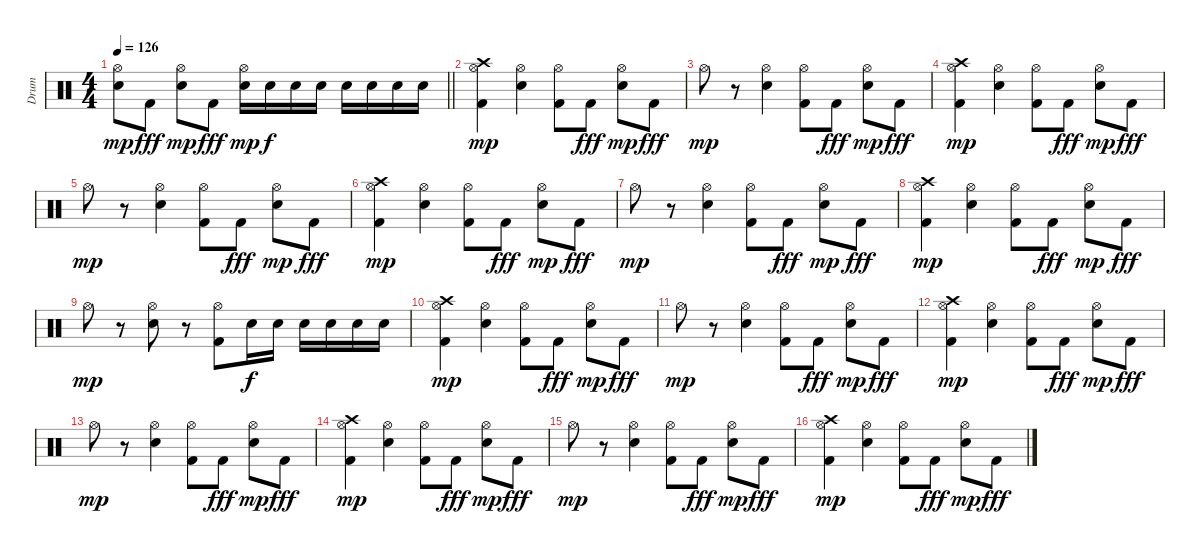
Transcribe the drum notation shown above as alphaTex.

\track ("Drum" "Drum") {instrument percussion}
\staff {score}
\articulation defaults
\ts (4 4)
\tempo 126
\clef neutral
\barLineRight lightlight
\ks c
("Electric Snare (hit)" "Hi-Hat (open)").8{dy mp} "Kick (hit) 2".8{dy fff} ("Electric Snare (hit)" "Hi-Hat (open)").8{dy mp} "Kick (hit) 2".8{dy fff} ("Electric Snare (hit)" "Hi-Hat (open)").16{dy mp} "Electric Snare (hit)".16{dy f} "Electric Snare (hit)".16 "Electric Snare (hit)".16 "Electric Snare (hit)".16 "Electric Snare (hit)".16 "Electric Snare (hit)".16 "Electric Snare (hit)".16 |
("Kick (hit) 2" "Hi-Hat (open)" "Crash high (hit)").4{dy mp} ("Electric Snare (hit)" "Hi-Hat (open)").4 ("Kick (hit) 2" "Hi-Hat (open)").8 "Kick (hit) 2".8{dy fff} ("Electric Snare (hit)" "Hi-Hat (open)").8{dy mp} "Kick (hit) 2".8{dy fff} |
"Hi-Hat (open)".8{dy mp} r.8 ("Electric Snare (hit)" "Hi-Hat (open)").4 ("Kick (hit) 2" "Hi-Hat (open)").8 "Kick (hit) 2".8{dy fff} ("Electric Snare (hit)" "Hi-Hat (open)").8{dy mp} "Kick (hit) 2".8{dy fff} |
("Kick (hit) 2" "Hi-Hat (open)" "Crash high (hit)").4{dy mp} ("Electric Snare (hit)" "Hi-Hat (open)").4 ("Kick (hit) 2" "Hi-Hat (open)").8 "Kick (hit) 2".8{dy fff} ("Electric Snare (hit)" "Hi-Hat (open)").8{dy mp} "Kick (hit) 2".8{dy fff} |
"Hi-Hat (open)".8{dy mp} r.8 ("Electric Snare (hit)" "Hi-Hat (open)").4 ("Kick (hit) 2" "Hi-Hat (open)").8 "Kick (hit) 2".8{dy fff} ("Electric Snare (hit)" "Hi-Hat (open)").8{dy mp} "Kick (hit) 2".8{dy fff} |
("Kick (hit) 2" "Hi-Hat (open)" "Crash high (hit)").4{dy mp} ("Electric Snare (hit)" "Hi-Hat (open)").4 ("Kick (hit) 2" "Hi-Hat (open)").8 "Kick (hit) 2".8{dy fff} ("Electric Snare (hit)" "Hi-Hat (open)").8{dy mp} "Kick (hit) 2".8{dy fff} |
"Hi-Hat (open)".8{dy mp} r.8 ("Electric Snare (hit)" "Hi-Hat (open)").4 ("Kick (hit) 2" "Hi-Hat (open)").8 "Kick (hit) 2".8{dy fff} ("Electric Snare (hit)" "Hi-Hat (open)").8{dy mp} "Kick (hit) 2".8{dy fff} |
("Kick (hit) 2" "Hi-Hat (open)" "Crash high (hit)").4{dy mp} ("Electric Snare (hit)" "Hi-Hat (open)").4 ("Kick (hit) 2" "Hi-Hat (open)").8 "Kick (hit) 2".8{dy fff} ("Electric Snare (hit)" "Hi-Hat (open)").8{dy mp} "Kick (hit) 2".8{dy fff} |
"Hi-Hat (open)".8{dy mp} r.8 ("Electric Snare (hit)" "Hi-Hat (open)").8 r.8 ("Kick (hit) 2" "Hi-Hat (open)").8 "Electric Snare (hit)".16{dy f} "Electric Snare (hit)".16 "Electric Snare (hit)".16 "Electric Snare (hit)".16 "Electric Snare (hit)".16 "Electric Snare (hit)".16 |
("Kick (hit) 2" "Hi-Hat (open)" "Crash high (hit)").4{dy mp} ("Electric Snare (hit)" "Hi-Hat (open)").4 ("Kick (hit) 2" "Hi-Hat (open)").8 "Kick (hit) 2".8{dy fff} ("Electric Snare (hit)" "Hi-Hat (open)").8{dy mp} "Kick (hit) 2".8{dy fff} |
"Hi-Hat (open)".8{dy mp} r.8 ("Electric Snare (hit)" "Hi-Hat (open)").4 ("Kick (hit) 2" "Hi-Hat (open)").8 "Kick (hit) 2".8{dy fff} ("Electric Snare (hit)" "Hi-Hat (open)").8{dy mp} "Kick (hit) 2".8{dy fff} |
("Kick (hit) 2" "Hi-Hat (open)" "Crash high (hit)").4{dy mp} ("Electric Snare (hit)" "Hi-Hat (open)").4 ("Kick (hit) 2" "Hi-Hat (open)").8 "Kick (hit) 2".8{dy fff} ("Electric Snare (hit)" "Hi-Hat (open)").8{dy mp} "Kick (hit) 2".8{dy fff} |
"Hi-Hat (open)".8{dy mp} r.8 ("Electric Snare (hit)" "Hi-Hat (open)").4 ("Kick (hit) 2" "Hi-Hat (open)").8 "Kick (hit) 2".8{dy fff} ("Electric Snare (hit)" "Hi-Hat (open)").8{dy mp} "Kick (hit) 2".8{dy fff} |
("Kick (hit) 2" "Hi-Hat (open)" "Crash high (hit)").4{dy mp} ("Electric Snare (hit)" "Hi-Hat (open)").4 ("Kick (hit) 2" "Hi-Hat (open)").8 "Kick (hit) 2".8{dy fff} ("Electric Snare (hit)" "Hi-Hat (open)").8{dy mp} "Kick (hit) 2".8{dy fff} |
"Hi-Hat (open)".8{dy mp} r.8 ("Electric Snare (hit)" "Hi-Hat (open)").4 ("Kick (hit) 2" "Hi-Hat (open)").8 "Kick (hit) 2".8{dy fff} ("Electric Snare (hit)" "Hi-Hat (open)").8{dy mp} "Kick (hit) 2".8{dy fff} |
("Kick (hit) 2" "Hi-Hat (open)" "Crash high (hit)").4{dy mp} ("Electric Snare (hit)" "Hi-Hat (open)").4 ("Kick (hit) 2" "Hi-Hat (open)").8 "Kick (hit) 2".8{dy fff} ("Electric Snare (hit)" "Hi-Hat (open)").8{dy mp} "Kick (hit) 2".8{dy fff}
